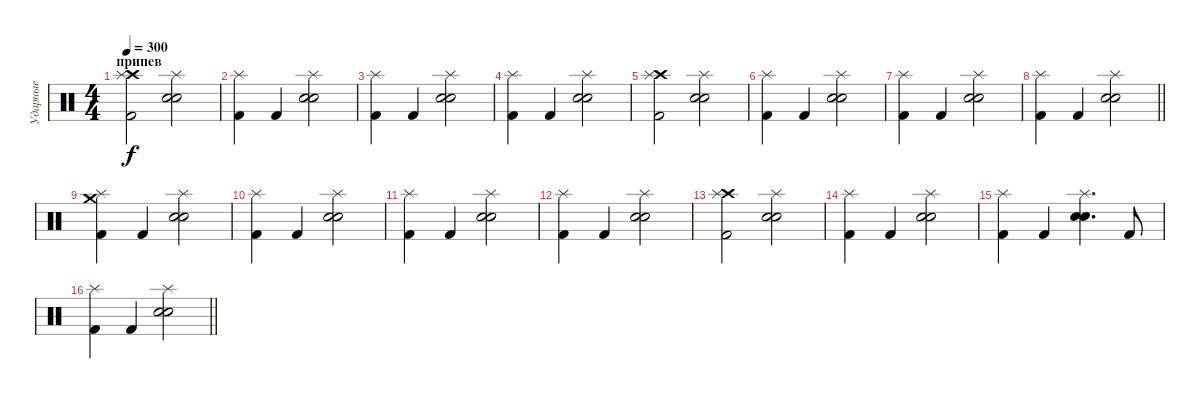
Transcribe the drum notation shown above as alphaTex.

\track ("Ударные" "Ударные") {instrument percussion}
\staff {score}
\articulation defaults
\ts (4 4)
\section ("" "припев")
\tempo 300
\clef neutral
\ks c
("Crash high (hit)" "Splash (hit)" "Kick (hit) 2").2{dy f} ("Splash (hit)" "Electric Snare (hit)" "Snare (hit) 2").2 |
("Splash (hit)" "Kick (hit) 2").4 "Kick (hit) 2".4 ("Splash (hit)" "Electric Snare (hit)" "Snare (hit) 2").2 |
("Splash (hit)" "Kick (hit) 2").4 "Kick (hit) 2".4 ("Splash (hit)" "Electric Snare (hit)" "Snare (hit) 2").2 |
("Splash (hit)" "Kick (hit) 2").4 "Kick (hit) 2".4 ("Splash (hit)" "Electric Snare (hit)" "Snare (hit) 2").2 |
("Crash high (hit)" "Splash (hit)" "Kick (hit) 2").2 ("Splash (hit)" "Electric Snare (hit)" "Snare (hit) 2").2 |
("Splash (hit)" "Kick (hit) 2").4 "Kick (hit) 2".4 ("Splash (hit)" "Electric Snare (hit)" "Snare (hit) 2").2 |
("Splash (hit)" "Kick (hit) 2").4 "Kick (hit) 2".4 ("Splash (hit)" "Electric Snare (hit)" "Snare (hit) 2").2 |
\barLineRight lightlight
("Splash (hit)" "Kick (hit) 2").4 "Kick (hit) 2".4 ("Splash (hit)" "Electric Snare (hit)" "Snare (hit) 2").2 |
("Crash medium (hit)" "Splash (hit)" "Kick (hit) 2").4 "Kick (hit) 2".4 ("Splash (hit)" "Electric Snare (hit)" "Snare (hit) 2").2 |
("Splash (hit)" "Kick (hit) 2").4 "Kick (hit) 2".4 ("Splash (hit)" "Electric Snare (hit)" "Snare (hit) 2").2 |
("Splash (hit)" "Kick (hit) 2").4 "Kick (hit) 2".4 ("Splash (hit)" "Electric Snare (hit)" "Snare (hit) 2").2 |
("Splash (hit)" "Kick (hit) 2").4 "Kick (hit) 2".4 ("Splash (hit)" "Electric Snare (hit)" "Snare (hit) 2").2 |
("Crash high (hit)" "Splash (hit)" "Kick (hit) 2").2 ("Splash (hit)" "Electric Snare (hit)" "Snare (hit) 2").2 |
("Splash (hit)" "Kick (hit) 2").4 "Kick (hit) 2".4 ("Splash (hit)" "Electric Snare (hit)" "Snare (hit) 2").2 |
("Splash (hit)" "Kick (hit) 2").4 "Kick (hit) 2".4 ("Splash (hit)" "Electric Snare (hit)" "Snare (hit) 2").4{d} "Kick (hit) 2".8 |
\barLineRight lightlight
("Splash (hit)" "Kick (hit) 2").4 "Kick (hit) 2".4 ("Splash (hit)" "Electric Snare (hit)" "Snare (hit) 2").2
